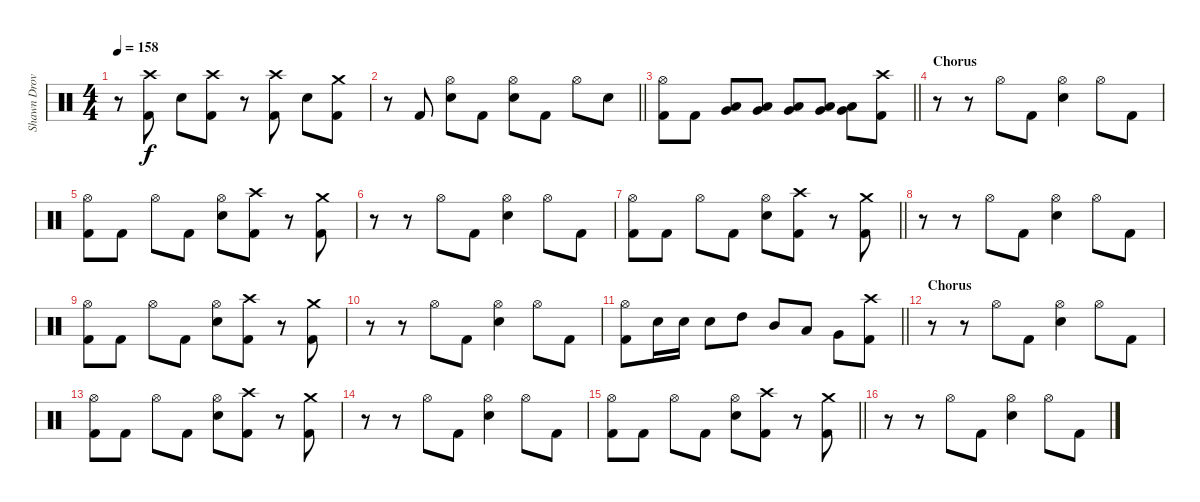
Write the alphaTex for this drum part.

\track ("Shawn Drover" "Shawn Drov") {instrument percussion}
\staff
\articulation defaults
\ts (4 4)
\tempo 158
\clef neutral
\ks c
r.8{dy f} ("Crash high (hit)" "Kick (hit) 2").8 "Snare (hit) 2".8 ("Crash high (hit)" "Kick (hit) 2").8 r.8 ("Crash high (hit)" "Kick (hit) 2").8 "Snare (hit) 2".8 ("Crash medium (hit)" "Kick (hit) 2").8 |
\barLineRight lightlight
r.8 "Kick (hit) 2".8 ("Hi-Hat (open)" "Snare (hit) 2").8 "Kick (hit) 2".8 ("Hi-Hat (open)" "Snare (hit) 2").8 "Kick (hit) 2".8 "Hi-Hat (open)".8 "Snare (hit) 2".8 |
\barLineRight lightlight
("Hi-Hat (open)" "Kick (hit) 2").8 "Kick (hit) 2".8 ("Very Low Tom (hit)" "Low Floor Tom (hit)").8 ("Very Low Tom (hit)" "Low Floor Tom (hit)").8 ("Very Low Tom (hit)" "Low Floor Tom (hit)").8 ("Very Low Tom (hit)" "Low Floor Tom (hit)").8 ("Very Low Tom (hit)" "Low Floor Tom (hit)").8 ("Crash high (hit)" "Kick (hit) 2").8 |
\section ("" "Chorus")
r.8 r.8 "Hi-Hat (open)".8 "Kick (hit) 2".8 ("Hi-Hat (open)" "Snare (hit) 2").4 "Hi-Hat (open)".8 "Kick (hit) 2".8 |
("Hi-Hat (open)" "Kick (hit) 2").8 "Kick (hit) 2".8 "Hi-Hat (open)".8 "Kick (hit) 2".8 ("Hi-Hat (open)" "Snare (hit) 2").8 ("Crash high (hit)" "Kick (hit) 2").8 r.8 ("Crash medium (hit)" "Kick (hit) 2").8 |
r.8 r.8 "Hi-Hat (open)".8 "Kick (hit) 2".8 ("Hi-Hat (open)" "Snare (hit) 2").4 "Hi-Hat (open)".8 "Kick (hit) 2".8 |
\barLineRight lightlight
("Hi-Hat (open)" "Kick (hit) 2").8 "Kick (hit) 2".8 "Hi-Hat (open)".8 "Kick (hit) 2".8 ("Hi-Hat (open)" "Snare (hit) 2").8 ("Crash high (hit)" "Kick (hit) 2").8 r.8 ("Crash medium (hit)" "Kick (hit) 2").8 |
r.8 r.8 "Hi-Hat (open)".8 "Kick (hit) 2".8 ("Hi-Hat (open)" "Snare (hit) 2").4 "Hi-Hat (open)".8 "Kick (hit) 2".8 |
("Hi-Hat (open)" "Kick (hit) 2").8 "Kick (hit) 2".8 "Hi-Hat (open)".8 "Kick (hit) 2".8 ("Hi-Hat (open)" "Snare (hit) 2").8 ("Crash high (hit)" "Kick (hit) 2").8 r.8 ("Crash medium (hit)" "Kick (hit) 2").8 |
r.8 r.8 "Hi-Hat (open)".8 "Kick (hit) 2".8 ("Hi-Hat (open)" "Snare (hit) 2").4 "Hi-Hat (open)".8 "Kick (hit) 2".8 |
\barLineRight lightlight
("Hi-Hat (open)" "Kick (hit) 2").8 "Snare (hit) 2".16 "Snare (hit) 2".16 "Snare (hit) 2".8 "High Tom (hit)".8 "Mid Tom (hit)".8 "Low Tom (hit)".8 "Very Low Tom (hit)".8 ("Crash high (hit)" "Kick (hit) 2").8 |
\section ("" "Chorus")
r.8 r.8 "Hi-Hat (open)".8 "Kick (hit) 2".8 ("Hi-Hat (open)" "Snare (hit) 2").4 "Hi-Hat (open)".8 "Kick (hit) 2".8 |
("Hi-Hat (open)" "Kick (hit) 2").8 "Kick (hit) 2".8 "Hi-Hat (open)".8 "Kick (hit) 2".8 ("Hi-Hat (open)" "Snare (hit) 2").8 ("Crash high (hit)" "Kick (hit) 2").8 r.8 ("Crash medium (hit)" "Kick (hit) 2").8 |
r.8 r.8 "Hi-Hat (open)".8 "Kick (hit) 2".8 ("Hi-Hat (open)" "Snare (hit) 2").4 "Hi-Hat (open)".8 "Kick (hit) 2".8 |
\barLineRight lightlight
("Hi-Hat (open)" "Kick (hit) 2").8 "Kick (hit) 2".8 "Hi-Hat (open)".8 "Kick (hit) 2".8 ("Hi-Hat (open)" "Snare (hit) 2").8 ("Crash high (hit)" "Kick (hit) 2").8 r.8 ("Crash medium (hit)" "Kick (hit) 2").8 |
r.8 r.8 "Hi-Hat (open)".8 "Kick (hit) 2".8 ("Hi-Hat (open)" "Snare (hit) 2").4 "Hi-Hat (open)".8 "Kick (hit) 2".8
